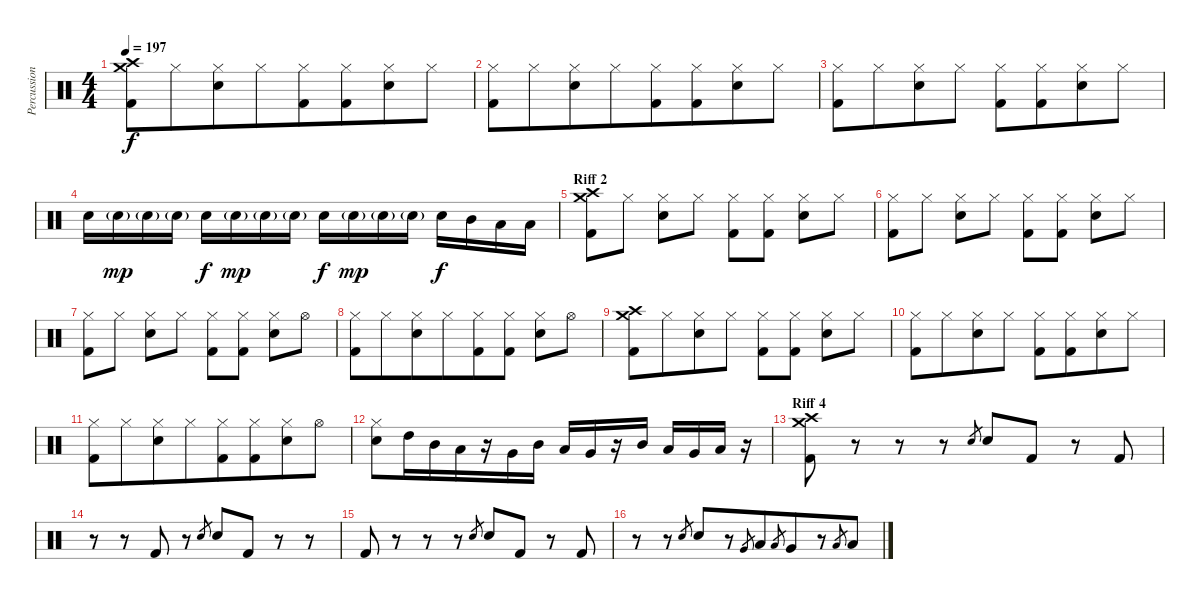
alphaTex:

\track ("Percussion" "Percussion") {instrument percussion}
\staff {score}
\articulation defaults
\ts (4 4)
\tempo 197
\clef neutral
\ks c
("Crash medium (hit)" "Crash high (hit)" "Kick (hit) 2").8{dy f} "Hi-Hat (closed)".8{beam merge} ("Hi-Hat (closed)" "Electric Snare (hit)").8{beam merge} "Hi-Hat (closed)".8{beam merge} ("Hi-Hat (closed)" "Kick (hit) 2").8{beam merge} ("Hi-Hat (closed)" "Kick (hit) 2").8{beam merge} ("Hi-Hat (closed)" "Electric Snare (hit)").8 "Hi-Hat (closed)".8 |
("Hi-Hat (closed)" "Kick (hit) 2").8{beam merge} "Hi-Hat (closed)".8{beam merge} ("Hi-Hat (closed)" "Electric Snare (hit)").8{beam merge} "Hi-Hat (closed)".8{beam merge} ("Hi-Hat (closed)" "Kick (hit) 2").8{beam merge} ("Hi-Hat (closed)" "Kick (hit) 2").8{beam merge} ("Hi-Hat (closed)" "Electric Snare (hit)").8{beam merge} "Hi-Hat (closed)".8 |
("Hi-Hat (closed)" "Kick (hit) 2").8{beam merge} "Hi-Hat (closed)".8{beam merge} ("Hi-Hat (closed)" "Electric Snare (hit)").8{beam merge} "Hi-Hat (closed)".8 ("Hi-Hat (closed)" "Kick (hit) 2").8{beam merge} ("Hi-Hat (closed)" "Kick (hit) 2").8{beam merge} ("Hi-Hat (closed)" "Electric Snare (hit)").8{beam merge} "Hi-Hat (closed)".8 |
"Electric Snare (hit)".16{beam merge} "Electric Snare (hit)"{g}.16{dy mp} "Electric Snare (hit)"{g}.16 "Electric Snare (hit)"{g}.16 "Electric Snare (hit)".16{dy f} "Electric Snare (hit)"{g}.16{dy mp beam merge} "Electric Snare (hit)"{g}.16 "Electric Snare (hit)"{g}.16 "Electric Snare (hit)".16{dy f} "Electric Snare (hit)"{g}.16{dy mp} "Electric Snare (hit)"{g}.16 "Electric Snare (hit)"{g}.16 "Electric Snare (hit)".16{dy f} "Mid Tom (hit)".16 "Low Tom (hit)".16 "Low Floor Tom (hit)".16 |
\section ("" "Riff 2")
("Crash medium (hit)" "Crash high (hit)" "Kick (hit) 2").8 "Hi-Hat (closed)".8 ("Hi-Hat (closed)" "Electric Snare (hit)").8 "Hi-Hat (closed)".8 ("Hi-Hat (closed)" "Kick (hit) 2").8 ("Hi-Hat (closed)" "Kick (hit) 2").8 ("Hi-Hat (closed)" "Electric Snare (hit)").8 "Hi-Hat (closed)".8 |
("Hi-Hat (closed)" "Kick (hit) 2").8{beam merge} "Hi-Hat (closed)".8 ("Hi-Hat (closed)" "Electric Snare (hit)").8 "Hi-Hat (closed)".8 ("Hi-Hat (closed)" "Kick (hit) 2").8 ("Hi-Hat (closed)" "Kick (hit) 2").8 ("Hi-Hat (closed)" "Electric Snare (hit)").8 "Hi-Hat (closed)".8 |
("Hi-Hat (closed)" "Kick (hit) 2").8 "Hi-Hat (closed)".8 ("Hi-Hat (closed)" "Electric Snare (hit)").8 "Hi-Hat (closed)".8 ("Hi-Hat (closed)" "Kick (hit) 2").8 ("Hi-Hat (closed)" "Kick (hit) 2").8 ("Hi-Hat (closed)" "Electric Snare (hit)").8 "Hi-Hat (open)".8 |
("Hi-Hat (closed)" "Kick (hit) 2").8 "Hi-Hat (closed)".8{beam merge} ("Hi-Hat (closed)" "Electric Snare (hit)").8 "Hi-Hat (closed)".8{beam merge} ("Hi-Hat (closed)" "Kick (hit) 2").8 ("Hi-Hat (closed)" "Kick (hit) 2").8 ("Hi-Hat (closed)" "Electric Snare (hit)").8 "Hi-Hat (open)".8 |
("Crash medium (hit)" "Crash high (hit)" "Kick (hit) 2").8{beam merge} "Hi-Hat (closed)".8{beam merge} ("Hi-Hat (closed)" "Electric Snare (hit)").8 "Hi-Hat (closed)".8 ("Hi-Hat (closed)" "Kick (hit) 2").8{beam merge} ("Hi-Hat (closed)" "Kick (hit) 2").8 ("Hi-Hat (closed)" "Electric Snare (hit)").8 "Hi-Hat (closed)".8 |
("Hi-Hat (closed)" "Kick (hit) 2").8{beam merge} "Hi-Hat (closed)".8{beam merge} ("Hi-Hat (closed)" "Electric Snare (hit)").8 "Hi-Hat (closed)".8 ("Hi-Hat (closed)" "Kick (hit) 2").8{beam merge} ("Hi-Hat (closed)" "Kick (hit) 2").8{beam merge} ("Hi-Hat (closed)" "Electric Snare (hit)").8{beam merge} "Hi-Hat (closed)".8 |
("Hi-Hat (closed)" "Kick (hit) 2").8{beam merge} "Hi-Hat (closed)".8{beam merge} ("Hi-Hat (closed)" "Electric Snare (hit)").8 "Hi-Hat (closed)".8{beam merge} ("Hi-Hat (closed)" "Kick (hit) 2").8{beam merge} ("Hi-Hat (closed)" "Kick (hit) 2").8{beam merge} ("Hi-Hat (closed)" "Electric Snare (hit)").8 "Hi-Hat (open)".8 |
("Hi-Hat (closed)" "Electric Snare (hit)").8 "High Tom (hit)".16{beam merge} "Mid Tom (hit)".16{beam merge} "Low Tom (hit)".16{beam merge} r.16{beam merge} "Very Low Tom (hit)".16{beam merge} "Mid Tom (hit)".16 "Low Tom (hit)".16{beam merge} "Very Low Tom (hit)".16{beam merge} r.16 "Mid Tom (hit)".16 "Low Tom (hit)".16{beam merge} "Very Low Tom (hit)".16 "Low Floor Tom (hit)".16 r.16 |
\section ("" "Riff 4")
("Crash medium (hit)" "Crash high (hit)" "Kick (hit) 2").8 r.8 r.8 r.8 "Electric Snare (hit)".8{gr} "Electric Snare (hit)".8 "Kick (hit) 2".8 r.8{beam merge} "Kick (hit) 2".8 |
r.8{beam merge} r.8{beam merge} "Kick (hit) 2".8 r.8 "Electric Snare (hit)".8{gr} "Electric Snare (hit)".8 "Kick (hit) 2".8 r.8{beam merge} r.8 |
"Kick (hit) 2".8 r.8{beam merge} r.8 r.8 "Electric Snare (hit)".8{gr beam merge} "Electric Snare (hit)".8 "Kick (hit) 2".8 r.8 "Kick (hit) 2".8 |
r.8 r.8 "Electric Snare (hit)".8{gr} "Electric Snare (hit)".8{beam merge} r.8 "Very Low Tom (hit)".8{gr beam merge} "Low Tom (hit)".8 "Low Floor Tom (hit)".8{gr beam merge} "Very Low Tom (hit)".8{beam merge} r.8 "Low Floor Tom (hit)".8{gr beam merge} "Low Floor Tom (hit)".8
